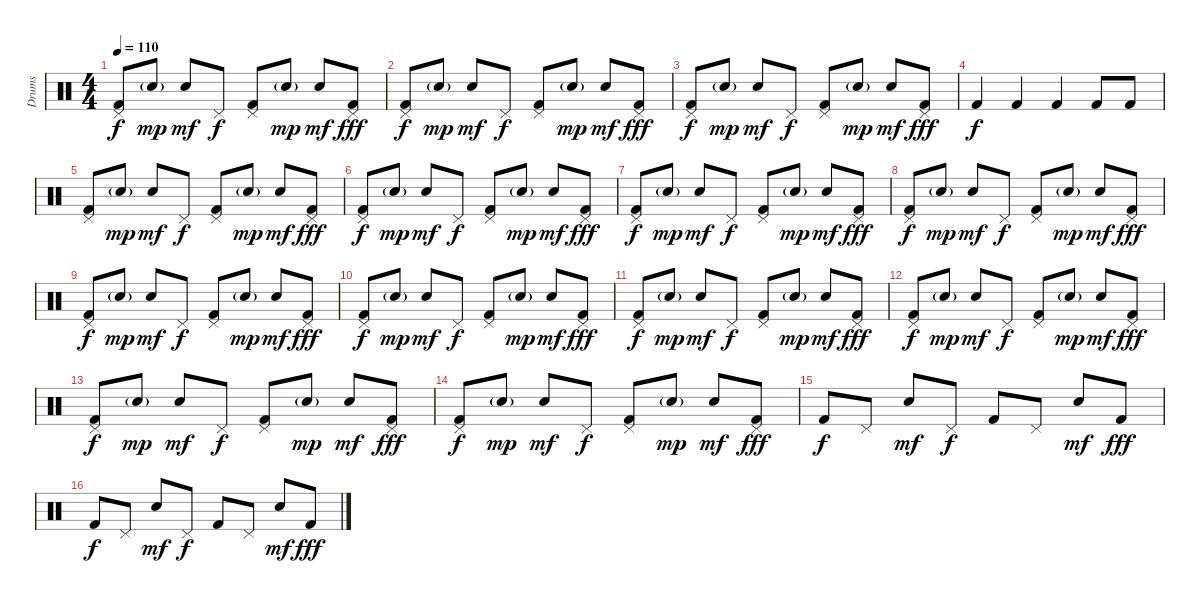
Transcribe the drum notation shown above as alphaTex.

\track ("Drums" "Drums") {instrument percussion}
\staff {score}
\articulation defaults
\ts (4 4)
\tempo 110
\clef neutral
\ks c
("Pedal Hi-Hat (hit)" "Kick (hit) 2").8{dy f} "Snare (hit) 2"{g}.8{dy mp} "Electric Snare (hit)".8{dy mf} "Pedal Hi-Hat (hit)".8{dy f} ("Pedal Hi-Hat (hit)" "Kick (hit) 2").8 "Snare (hit) 2"{g}.8{dy mp} "Electric Snare (hit)".8{dy mf} ("Pedal Hi-Hat (hit)" "Kick (hit) 2").8{dy fff} |
("Pedal Hi-Hat (hit)" "Kick (hit) 2").8{dy f} "Snare (hit) 2"{g}.8{dy mp} "Electric Snare (hit)".8{dy mf} "Pedal Hi-Hat (hit)".8{dy f} ("Pedal Hi-Hat (hit)" "Kick (hit) 2").8 "Snare (hit) 2"{g}.8{dy mp} "Electric Snare (hit)".8{dy mf} ("Pedal Hi-Hat (hit)" "Kick (hit) 2").8{dy fff} |
("Pedal Hi-Hat (hit)" "Kick (hit) 2").8{dy f} "Snare (hit) 2"{g}.8{dy mp} "Electric Snare (hit)".8{dy mf} "Pedal Hi-Hat (hit)".8{dy f} ("Pedal Hi-Hat (hit)" "Kick (hit) 2").8 "Snare (hit) 2"{g}.8{dy mp} "Electric Snare (hit)".8{dy mf} ("Pedal Hi-Hat (hit)" "Kick (hit) 2").8{dy fff} |
"Kick (hit) 2".4{dy f} "Kick (hit) 2".4 "Kick (hit) 2".4 "Kick (hit) 2".8 "Kick (hit) 2".8 |
("Pedal Hi-Hat (hit)" "Kick (hit) 2").8 "Snare (hit) 2"{g}.8{dy mp} "Electric Snare (hit)".8{dy mf} "Pedal Hi-Hat (hit)".8{dy f} ("Pedal Hi-Hat (hit)" "Kick (hit) 2").8 "Snare (hit) 2"{g}.8{dy mp} "Electric Snare (hit)".8{dy mf} ("Pedal Hi-Hat (hit)" "Kick (hit) 2").8{dy fff} |
("Pedal Hi-Hat (hit)" "Kick (hit) 2").8{dy f} "Snare (hit) 2"{g}.8{dy mp} "Electric Snare (hit)".8{dy mf} "Pedal Hi-Hat (hit)".8{dy f} ("Pedal Hi-Hat (hit)" "Kick (hit) 2").8 "Snare (hit) 2"{g}.8{dy mp} "Electric Snare (hit)".8{dy mf} ("Pedal Hi-Hat (hit)" "Kick (hit) 2").8{dy fff} |
("Pedal Hi-Hat (hit)" "Kick (hit) 2").8{dy f} "Snare (hit) 2"{g}.8{dy mp} "Electric Snare (hit)".8{dy mf} "Pedal Hi-Hat (hit)".8{dy f} ("Pedal Hi-Hat (hit)" "Kick (hit) 2").8 "Snare (hit) 2"{g}.8{dy mp} "Electric Snare (hit)".8{dy mf} ("Pedal Hi-Hat (hit)" "Kick (hit) 2").8{dy fff} |
("Pedal Hi-Hat (hit)" "Kick (hit) 2").8{dy f} "Snare (hit) 2"{g}.8{dy mp} "Electric Snare (hit)".8{dy mf} "Pedal Hi-Hat (hit)".8{dy f} ("Pedal Hi-Hat (hit)" "Kick (hit) 2").8 "Snare (hit) 2"{g}.8{dy mp} "Electric Snare (hit)".8{dy mf} ("Pedal Hi-Hat (hit)" "Kick (hit) 2").8{dy fff} |
("Pedal Hi-Hat (hit)" "Kick (hit) 2").8{dy f} "Snare (hit) 2"{g}.8{dy mp} "Electric Snare (hit)".8{dy mf} "Pedal Hi-Hat (hit)".8{dy f} ("Pedal Hi-Hat (hit)" "Kick (hit) 2").8 "Snare (hit) 2"{g}.8{dy mp} "Electric Snare (hit)".8{dy mf} ("Pedal Hi-Hat (hit)" "Kick (hit) 2").8{dy fff} |
("Pedal Hi-Hat (hit)" "Kick (hit) 2").8{dy f} "Snare (hit) 2"{g}.8{dy mp} "Electric Snare (hit)".8{dy mf} "Pedal Hi-Hat (hit)".8{dy f} ("Pedal Hi-Hat (hit)" "Kick (hit) 2").8 "Snare (hit) 2"{g}.8{dy mp} "Electric Snare (hit)".8{dy mf} ("Pedal Hi-Hat (hit)" "Kick (hit) 2").8{dy fff} |
("Pedal Hi-Hat (hit)" "Kick (hit) 2").8{dy f} "Snare (hit) 2"{g}.8{dy mp} "Electric Snare (hit)".8{dy mf} "Pedal Hi-Hat (hit)".8{dy f} ("Pedal Hi-Hat (hit)" "Kick (hit) 2").8 "Snare (hit) 2"{g}.8{dy mp} "Electric Snare (hit)".8{dy mf} ("Pedal Hi-Hat (hit)" "Kick (hit) 2").8{dy fff} |
("Pedal Hi-Hat (hit)" "Kick (hit) 2").8{dy f} "Snare (hit) 2"{g}.8{dy mp} "Electric Snare (hit)".8{dy mf} "Pedal Hi-Hat (hit)".8{dy f} ("Pedal Hi-Hat (hit)" "Kick (hit) 2").8 "Snare (hit) 2"{g}.8{dy mp} "Electric Snare (hit)".8{dy mf} ("Pedal Hi-Hat (hit)" "Kick (hit) 2").8{dy fff} |
("Pedal Hi-Hat (hit)" "Kick (hit) 2").8{dy f} "Snare (hit) 2"{g}.8{dy mp} "Electric Snare (hit)".8{dy mf} "Pedal Hi-Hat (hit)".8{dy f} ("Pedal Hi-Hat (hit)" "Kick (hit) 2").8 "Snare (hit) 2"{g}.8{dy mp} "Electric Snare (hit)".8{dy mf} ("Pedal Hi-Hat (hit)" "Kick (hit) 2").8{dy fff} |
("Pedal Hi-Hat (hit)" "Kick (hit) 2").8{dy f} "Snare (hit) 2"{g}.8{dy mp} "Electric Snare (hit)".8{dy mf} "Pedal Hi-Hat (hit)".8{dy f} ("Pedal Hi-Hat (hit)" "Kick (hit) 2").8 "Snare (hit) 2"{g}.8{dy mp} "Electric Snare (hit)".8{dy mf} ("Pedal Hi-Hat (hit)" "Kick (hit) 2").8{dy fff} |
"Kick (hit) 2".8{dy f} "Pedal Hi-Hat (hit)".8 "Electric Snare (hit)".8{dy mf} "Pedal Hi-Hat (hit)".8{dy f} "Kick (hit) 2".8 "Pedal Hi-Hat (hit)".8 "Electric Snare (hit)".8{dy mf} "Kick (hit) 2".8{dy fff} |
"Kick (hit) 2".8{dy f} "Pedal Hi-Hat (hit)".8 "Electric Snare (hit)".8{dy mf} "Pedal Hi-Hat (hit)".8{dy f} "Kick (hit) 2".8 "Pedal Hi-Hat (hit)".8 "Electric Snare (hit)".8{dy mf} "Kick (hit) 2".8{dy fff}
